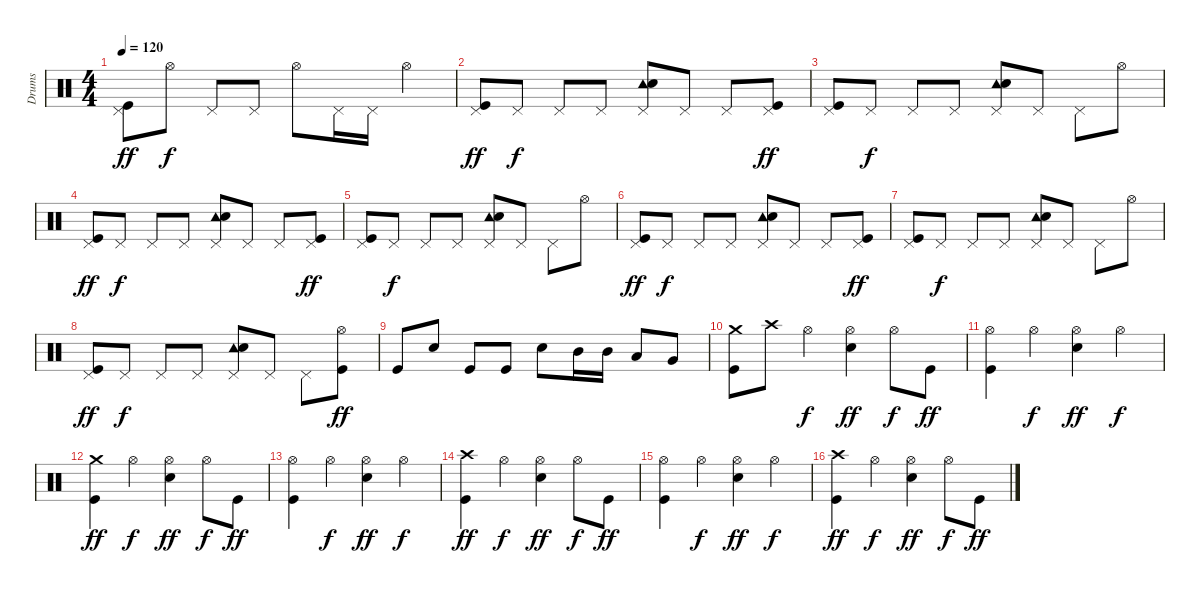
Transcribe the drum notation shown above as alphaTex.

\track ("Drums" "Drums") {instrument percussion}
\staff {score}
\articulation defaults
\ts (4 4)
\tempo 120
\clef neutral
\ks c
("Pedal Hi-Hat (hit)" "Kick (hit)").8{dy ff} "Hi-Hat (open)".8{dy f} "Pedal Hi-Hat (hit)".8 "Pedal Hi-Hat (hit)".8 "Hi-Hat (open)".8 "Pedal Hi-Hat (hit)".16 "Pedal Hi-Hat (hit)".16 "Hi-Hat (open)".4 |
("Pedal Hi-Hat (hit)" "Kick (hit)").8{dy ff} "Pedal Hi-Hat (hit)".8{dy f} "Pedal Hi-Hat (hit)".8 "Pedal Hi-Hat (hit)".8 ("Pedal Hi-Hat (hit)" "Tambourine (hit)" "Electric Snare (hit)").8 "Pedal Hi-Hat (hit)".8 "Pedal Hi-Hat (hit)".8 ("Pedal Hi-Hat (hit)" "Kick (hit)").8{dy ff} |
("Pedal Hi-Hat (hit)" "Kick (hit)").8 "Pedal Hi-Hat (hit)".8{dy f} "Pedal Hi-Hat (hit)".8 "Pedal Hi-Hat (hit)".8 ("Pedal Hi-Hat (hit)" "Tambourine (hit)" "Electric Snare (hit)").8 "Pedal Hi-Hat (hit)".8 "Pedal Hi-Hat (hit)".8 "Hi-Hat (open)".8 |
("Pedal Hi-Hat (hit)" "Kick (hit)").8{dy ff} "Pedal Hi-Hat (hit)".8{dy f} "Pedal Hi-Hat (hit)".8 "Pedal Hi-Hat (hit)".8 ("Pedal Hi-Hat (hit)" "Tambourine (hit)" "Electric Snare (hit)").8 "Pedal Hi-Hat (hit)".8 "Pedal Hi-Hat (hit)".8 ("Pedal Hi-Hat (hit)" "Kick (hit)").8{dy ff} |
("Pedal Hi-Hat (hit)" "Kick (hit)").8 "Pedal Hi-Hat (hit)".8{dy f} "Pedal Hi-Hat (hit)".8 "Pedal Hi-Hat (hit)".8 ("Pedal Hi-Hat (hit)" "Tambourine (hit)" "Electric Snare (hit)").8 "Pedal Hi-Hat (hit)".8 "Pedal Hi-Hat (hit)".8 "Hi-Hat (open)".8 |
("Pedal Hi-Hat (hit)" "Kick (hit)").8{dy ff} "Pedal Hi-Hat (hit)".8{dy f} "Pedal Hi-Hat (hit)".8 "Pedal Hi-Hat (hit)".8 ("Pedal Hi-Hat (hit)" "Tambourine (hit)" "Electric Snare (hit)").8 "Pedal Hi-Hat (hit)".8 "Pedal Hi-Hat (hit)".8 ("Pedal Hi-Hat (hit)" "Kick (hit)").8{dy ff} |
("Pedal Hi-Hat (hit)" "Kick (hit)").8 "Pedal Hi-Hat (hit)".8{dy f} "Pedal Hi-Hat (hit)".8 "Pedal Hi-Hat (hit)".8 ("Pedal Hi-Hat (hit)" "Tambourine (hit)" "Electric Snare (hit)").8 "Pedal Hi-Hat (hit)".8 "Pedal Hi-Hat (hit)".8 "Hi-Hat (open)".8 |
("Pedal Hi-Hat (hit)" "Kick (hit)").8{dy ff} "Pedal Hi-Hat (hit)".8{dy f} "Pedal Hi-Hat (hit)".8 "Pedal Hi-Hat (hit)".8 ("Pedal Hi-Hat (hit)" "Tambourine (hit)" "Electric Snare (hit)").8 "Pedal Hi-Hat (hit)".8 "Pedal Hi-Hat (hit)".8 ("Hi-Hat (open)" "Kick (hit)").8{dy ff} |
"Kick (hit)".8 "Electric Snare (hit)".8 "Kick (hit)".8 "Kick (hit)".8 "Electric Snare (hit)".8 "Mid Tom (hit)".16 "Mid Tom (hit)".16 "Low Tom (hit)".8 "Very Low Tom (hit)".8 |
("Crash medium (hit)" "Kick (hit)").8 "Crash high (hit)".8 "Hi-Hat (open)".4{dy f} ("Hi-Hat (open)" "Electric Snare (hit)").4{dy ff} "Hi-Hat (open)".8{dy f} "Kick (hit)".8{dy ff} |
("Hi-Hat (open)" "Kick (hit)").4 "Hi-Hat (open)".4{dy f} ("Hi-Hat (open)" "Electric Snare (hit)").4{dy ff} "Hi-Hat (open)".4{dy f} |
("Crash medium (hit)" "Kick (hit)").4{dy ff} "Hi-Hat (open)".4{dy f} ("Hi-Hat (open)" "Electric Snare (hit)").4{dy ff} "Hi-Hat (open)".8{dy f} "Kick (hit)".8{dy ff} |
("Hi-Hat (open)" "Kick (hit)").4 "Hi-Hat (open)".4{dy f} ("Hi-Hat (open)" "Electric Snare (hit)").4{dy ff} "Hi-Hat (open)".4{dy f} |
("Crash high (hit)" "Kick (hit)").4{dy ff} "Hi-Hat (open)".4{dy f} ("Hi-Hat (open)" "Electric Snare (hit)").4{dy ff} "Hi-Hat (open)".8{dy f} "Kick (hit)".8{dy ff} |
("Hi-Hat (open)" "Kick (hit)").4 "Hi-Hat (open)".4{dy f} ("Hi-Hat (open)" "Electric Snare (hit)").4{dy ff} "Hi-Hat (open)".4{dy f} |
("Crash high (hit)" "Kick (hit)").4{dy ff} "Hi-Hat (open)".4{dy f} ("Hi-Hat (open)" "Electric Snare (hit)").4{dy ff} "Hi-Hat (open)".8{dy f} "Kick (hit)".8{dy ff}
